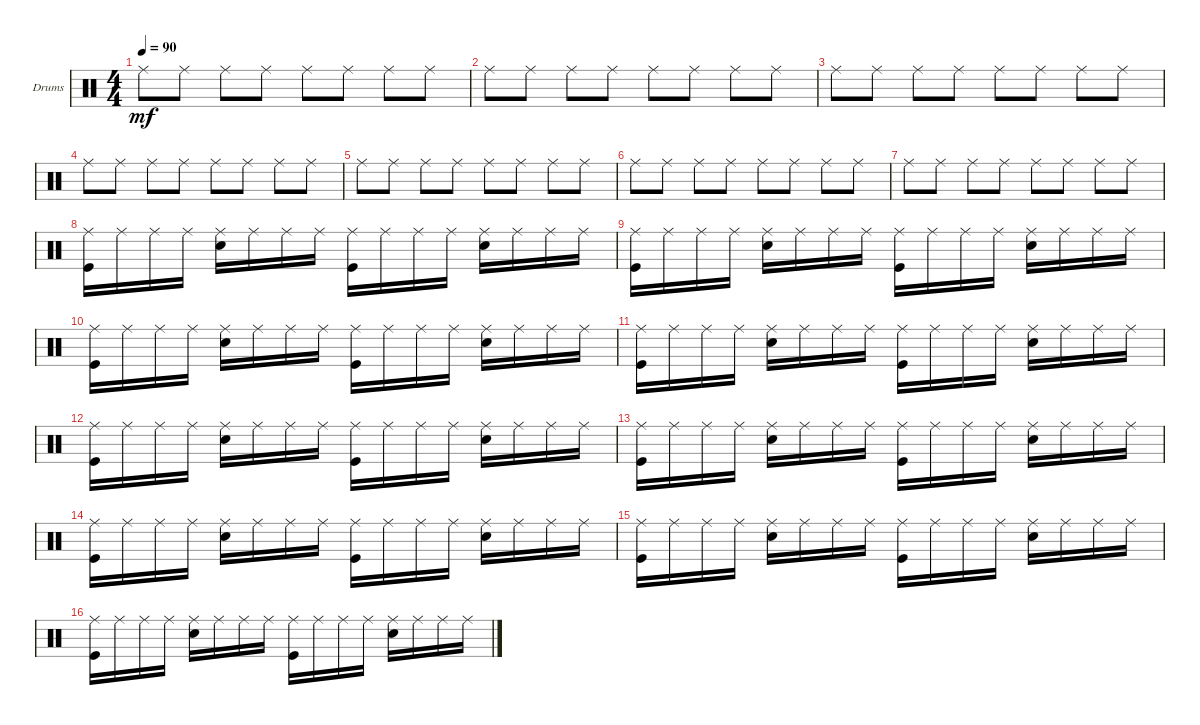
\defaultSystemsLayout 4
\bracketExtendMode groupsimilarinstruments
\firstSystemTrackNameOrientation horizontal
\otherSystemsTrackNameOrientation horizontal
\track ("Drumkit" "Drums") {instrument percussion}
\staff {score}
\articulation defaults
\ts (4 4)
\tempo 90
\clef neutral
\ks c "Ride (middle)".8{dy mf} "Ride (middle)".8 "Ride (middle)".8 "Ride (middle)".8 "Ride (middle)".8 "Ride (middle)".8 "Ride (middle)".8 "Ride (middle)".8
|
"Ride (middle)".8 "Ride (middle)".8 "Ride (middle)".8 "Ride (middle)".8 "Ride (middle)".8 "Ride (middle)".8 "Ride (middle)".8 "Ride (middle)".8 |
"Ride (middle)".8 "Ride (middle)".8 "Ride (middle)".8 "Ride (middle)".8 "Ride (middle)".8 "Ride (middle)".8 "Ride (middle)".8 "Ride (middle)".8 |
"Ride (middle)".8 "Ride (middle)".8 "Ride (middle)".8 "Ride (middle)".8 "Ride (middle)".8 "Ride (middle)".8 "Ride (middle)".8 "Ride (middle)".8 |
"Ride (middle)".8 "Ride (middle)".8 "Ride (middle)".8 "Ride (middle)".8 "Ride (middle)".8 "Ride (middle)".8 "Ride (middle)".8 "Ride (middle)".8 |
"Ride (middle)".8 "Ride (middle)".8 "Ride (middle)".8 "Ride (middle)".8 "Ride (middle)".8 "Ride (middle)".8 "Ride (middle)".8 "Ride (middle)".8 |
"Ride (middle)".8 "Ride (middle)".8 "Ride (middle)".8 "Ride (middle)".8 "Ride (middle)".8 "Ride (middle)".8 "Ride (middle)".8 "Ride (middle)".8 |
("Ride (middle)" "Kick (hit)").16 "Ride (middle)".16 "Ride (middle)".16 "Ride (middle)".16 ("Ride (middle)" "Snare (hit) 2").16 "Ride (middle)".16 "Ride (middle)".16 "Ride (middle)".16 ("Ride (middle)" "Kick (hit)").16 "Ride (middle)".16 "Ride (middle)".16 "Ride (middle)".16 ("Ride (middle)" "Snare (hit) 2").16 "Ride (middle)".16 "Ride (middle)".16 "Ride (middle)".16 |
("Ride (middle)" "Kick (hit)").16 "Ride (middle)".16 "Ride (middle)".16 "Ride (middle)".16 ("Ride (middle)" "Snare (hit) 2").16 "Ride (middle)".16 "Ride (middle)".16 "Ride (middle)".16 ("Ride (middle)" "Kick (hit)").16 "Ride (middle)".16 "Ride (middle)".16 "Ride (middle)".16 ("Ride (middle)" "Snare (hit) 2").16 "Ride (middle)".16 "Ride (middle)".16 "Ride (middle)".16 |
("Ride (middle)" "Kick (hit)").16 "Ride (middle)".16 "Ride (middle)".16 "Ride (middle)".16 ("Ride (middle)" "Snare (hit) 2").16 "Ride (middle)".16 "Ride (middle)".16 "Ride (middle)".16 ("Ride (middle)" "Kick (hit)").16 "Ride (middle)".16 "Ride (middle)".16 "Ride (middle)".16 ("Ride (middle)" "Snare (hit) 2").16 "Ride (middle)".16 "Ride (middle)".16 "Ride (middle)".16 |
("Ride (middle)" "Kick (hit)").16 "Ride (middle)".16 "Ride (middle)".16 "Ride (middle)".16 ("Ride (middle)" "Snare (hit) 2").16 "Ride (middle)".16 "Ride (middle)".16 "Ride (middle)".16 ("Ride (middle)" "Kick (hit)").16 "Ride (middle)".16 "Ride (middle)".16 "Ride (middle)".16 ("Ride (middle)" "Snare (hit) 2").16 "Ride (middle)".16 "Ride (middle)".16 "Ride (middle)".16 |
("Ride (middle)" "Kick (hit)").16 "Ride (middle)".16 "Ride (middle)".16 "Ride (middle)".16 ("Ride (middle)" "Snare (hit) 2").16 "Ride (middle)".16 "Ride (middle)".16 "Ride (middle)".16 ("Ride (middle)" "Kick (hit)").16 "Ride (middle)".16 "Ride (middle)".16 "Ride (middle)".16 ("Ride (middle)" "Snare (hit) 2").16 "Ride (middle)".16 "Ride (middle)".16 "Ride (middle)".16 |
("Ride (middle)" "Kick (hit)").16 "Ride (middle)".16 "Ride (middle)".16 "Ride (middle)".16 ("Ride (middle)" "Snare (hit) 2").16 "Ride (middle)".16 "Ride (middle)".16 "Ride (middle)".16 ("Ride (middle)" "Kick (hit)").16 "Ride (middle)".16 "Ride (middle)".16 "Ride (middle)".16 ("Ride (middle)" "Snare (hit) 2").16 "Ride (middle)".16 "Ride (middle)".16 "Ride (middle)".16 |
("Ride (middle)" "Kick (hit)").16 "Ride (middle)".16 "Ride (middle)".16 "Ride (middle)".16 ("Ride (middle)" "Snare (hit) 2").16 "Ride (middle)".16 "Ride (middle)".16 "Ride (middle)".16 ("Ride (middle)" "Kick (hit)").16 "Ride (middle)".16 "Ride (middle)".16 "Ride (middle)".16 ("Ride (middle)" "Snare (hit) 2").16 "Ride (middle)".16 "Ride (middle)".16 "Ride (middle)".16 |
("Ride (middle)" "Kick (hit)").16 "Ride (middle)".16 "Ride (middle)".16 "Ride (middle)".16 ("Ride (middle)" "Snare (hit) 2").16 "Ride (middle)".16 "Ride (middle)".16 "Ride (middle)".16 ("Ride (middle)" "Kick (hit)").16 "Ride (middle)".16 "Ride (middle)".16 "Ride (middle)".16 ("Ride (middle)" "Snare (hit) 2").16 "Ride (middle)".16 "Ride (middle)".16 "Ride (middle)".16 |
("Ride (middle)" "Kick (hit)").16 "Ride (middle)".16 "Ride (middle)".16 "Ride (middle)".16 ("Ride (middle)" "Snare (hit) 2").16 "Ride (middle)".16 "Ride (middle)".16 "Ride (middle)".16 ("Ride (middle)" "Kick (hit)").16 "Ride (middle)".16 "Ride (middle)".16 "Ride (middle)".16 ("Ride (middle)" "Snare (hit) 2").16 "Ride (middle)".16 "Ride (middle)".16 "Ride (middle)".16
